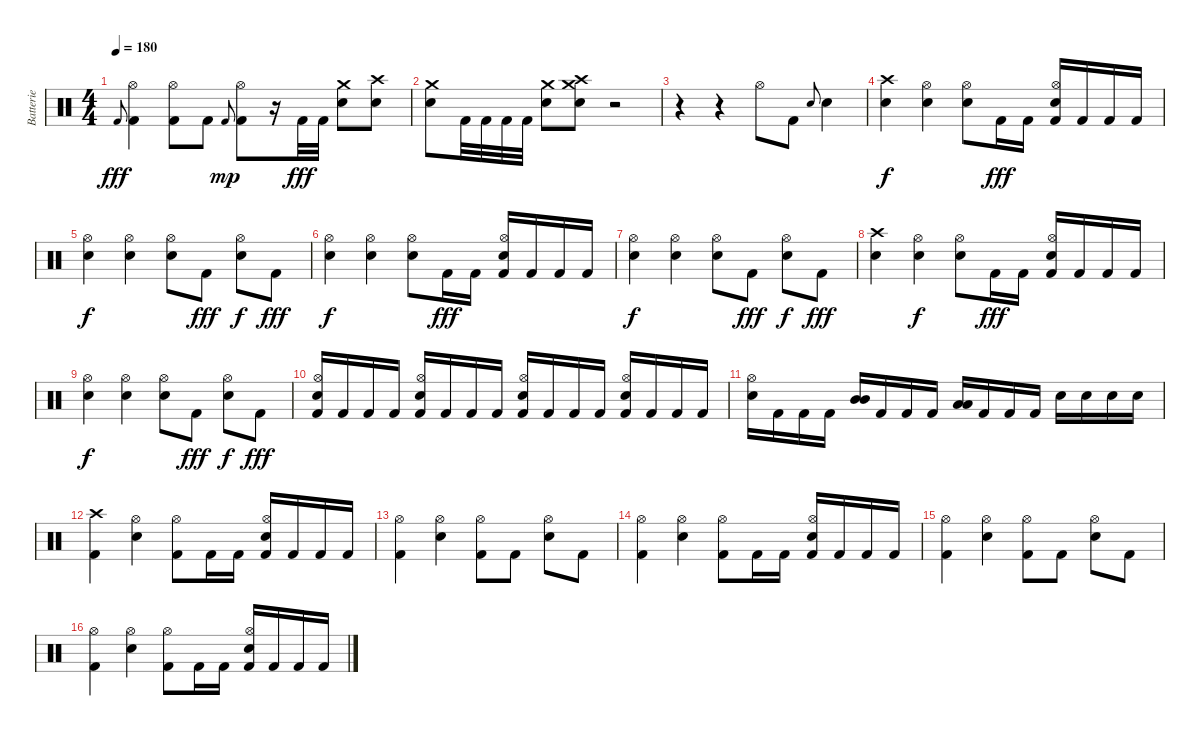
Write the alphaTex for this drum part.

\track ("Batterie" "Batterie") {instrument percussion}
\staff {score}
\articulation defaults
\ts (4 4)
\tempo 180
\clef neutral
\ks c "Kick (hit) 2".8{gr onbeat dy fff}
("Hi-Hat (open)" "Kick (hit) 2").4 ("Hi-Hat (open)" "Kick (hit) 2").8 "Kick (hit) 2".8 "Kick (hit) 2".8{gr onbeat dy mp} ("Hi-Hat (open)" "Kick (hit) 2").8 r.16 "Kick (hit) 2".32{dy fff} "Kick (hit) 2".32 ("Crash medium (hit)" "Electric Snare (hit)").8 ("Crash high (hit)" "Electric Snare (hit)").8 |
("Crash medium (hit)" "Electric Snare (hit)").8 "Kick (hit) 2".32 "Kick (hit) 2".32 "Kick (hit) 2".32 "Kick (hit) 2".32 ("Crash medium (hit)" "Electric Snare (hit)").8 ("Crash high (hit)" "Electric Snare (hit)" "Crash medium (hit)").8 r.2 |
r.4 r.4 "Hi-Hat (open)".8 "Kick (hit) 2".8 "Electric Snare (hit)".8{gr onbeat} "Electric Snare (hit)".4 |
("Crash high (hit)" "Electric Snare (hit)").4{dy f} ("Hi-Hat (open)" "Electric Snare (hit)").4 ("Hi-Hat (open)" "Electric Snare (hit)").8 "Kick (hit) 2".16{dy fff} "Kick (hit) 2".16 ("Hi-Hat (open)" "Electric Snare (hit)" "Kick (hit) 2").16 "Kick (hit) 2".16 "Kick (hit) 2".16 "Kick (hit) 2".16 |
("Hi-Hat (open)" "Electric Snare (hit)").4{dy f} ("Hi-Hat (open)" "Electric Snare (hit)").4 ("Hi-Hat (open)" "Electric Snare (hit)").8 "Kick (hit) 2".8{dy fff} ("Hi-Hat (open)" "Electric Snare (hit)").8{dy f} "Kick (hit) 2".8{dy fff} |
("Hi-Hat (open)" "Electric Snare (hit)").4{dy f} ("Hi-Hat (open)" "Electric Snare (hit)").4 ("Hi-Hat (open)" "Electric Snare (hit)").8 "Kick (hit) 2".16{dy fff} "Kick (hit) 2".16 ("Hi-Hat (open)" "Electric Snare (hit)" "Kick (hit) 2").16 "Kick (hit) 2".16 "Kick (hit) 2".16 "Kick (hit) 2".16 |
("Hi-Hat (open)" "Electric Snare (hit)").4{dy f} ("Hi-Hat (open)" "Electric Snare (hit)").4 ("Hi-Hat (open)" "Electric Snare (hit)").8 "Kick (hit) 2".8{dy fff} ("Hi-Hat (open)" "Electric Snare (hit)").8{dy f} "Kick (hit) 2".8{dy fff} |
("Crash high (hit)" "Electric Snare (hit)").4 ("Hi-Hat (open)" "Electric Snare (hit)").4{dy f} ("Hi-Hat (open)" "Electric Snare (hit)").8 "Kick (hit) 2".16{dy fff} "Kick (hit) 2".16 ("Hi-Hat (open)" "Electric Snare (hit)" "Kick (hit) 2").16 "Kick (hit) 2".16 "Kick (hit) 2".16 "Kick (hit) 2".16 |
("Hi-Hat (open)" "Electric Snare (hit)").4{dy f} ("Hi-Hat (open)" "Electric Snare (hit)").4 ("Hi-Hat (open)" "Electric Snare (hit)").8 "Kick (hit) 2".8{dy fff} ("Hi-Hat (open)" "Electric Snare (hit)").8{dy f} "Kick (hit) 2".8{dy fff} |
("Hi-Hat (open)" "Electric Snare (hit)" "Kick (hit) 2").16 "Kick (hit) 2".16 "Kick (hit) 2".16 "Kick (hit) 2".16 ("Hi-Hat (open)" "Electric Snare (hit)" "Kick (hit) 2").16 "Kick (hit) 2".16 "Kick (hit) 2".16 "Kick (hit) 2".16 ("Hi-Hat (open)" "Electric Snare (hit)" "Kick (hit) 2").16 "Kick (hit) 2".16 "Kick (hit) 2".16 "Kick (hit) 2".16 ("Hi-Hat (open)" "Electric Snare (hit)" "Kick (hit) 2").16 "Kick (hit) 2".16 "Kick (hit) 2".16 "Kick (hit) 2".16 |
("Hi-Hat (open)" "Electric Snare (hit)").16 "Kick (hit) 2".16 "Kick (hit) 2".16 "Kick (hit) 2".16 ("Mid Tom (hit)" "Mid Tom (hit)").16 "Kick (hit) 2".16 "Kick (hit) 2".16 "Kick (hit) 2".16 ("Low Tom (hit)" "Low Tom (hit)").16 "Kick (hit) 2".16 "Kick (hit) 2".16 "Kick (hit) 2".16 "Electric Snare (hit)".16 "Electric Snare (hit)".16 "Electric Snare (hit)".16 "Electric Snare (hit)".16 |
("Crash high (hit)" "Kick (hit) 2").4 ("Hi-Hat (open)" "Electric Snare (hit)").4 ("Hi-Hat (open)" "Kick (hit) 2").8 "Kick (hit) 2".16 "Kick (hit) 2".16 ("Hi-Hat (open)" "Electric Snare (hit)" "Kick (hit) 2").16 "Kick (hit) 2".16 "Kick (hit) 2".16 "Kick (hit) 2".16 |
("Hi-Hat (open)" "Kick (hit) 2").4 ("Hi-Hat (open)" "Electric Snare (hit)").4 ("Hi-Hat (open)" "Kick (hit) 2").8 "Kick (hit) 2".8 ("Hi-Hat (open)" "Electric Snare (hit)").8 "Kick (hit) 2".8 |
("Hi-Hat (open)" "Kick (hit) 2").4 ("Hi-Hat (open)" "Electric Snare (hit)").4 ("Hi-Hat (open)" "Kick (hit) 2").8 "Kick (hit) 2".16 "Kick (hit) 2".16 ("Hi-Hat (open)" "Electric Snare (hit)" "Kick (hit) 2").16 "Kick (hit) 2".16 "Kick (hit) 2".16 "Kick (hit) 2".16 |
("Hi-Hat (open)" "Kick (hit) 2").4 ("Hi-Hat (open)" "Electric Snare (hit)").4 ("Hi-Hat (open)" "Kick (hit) 2").8 "Kick (hit) 2".8 ("Hi-Hat (open)" "Electric Snare (hit)").8 "Kick (hit) 2".8 |
("Hi-Hat (open)" "Kick (hit) 2").4 ("Hi-Hat (open)" "Electric Snare (hit)").4 ("Hi-Hat (open)" "Kick (hit) 2").8 "Kick (hit) 2".16 "Kick (hit) 2".16 ("Hi-Hat (open)" "Electric Snare (hit)" "Kick (hit) 2").16 "Kick (hit) 2".16 "Kick (hit) 2".16 "Kick (hit) 2".16
